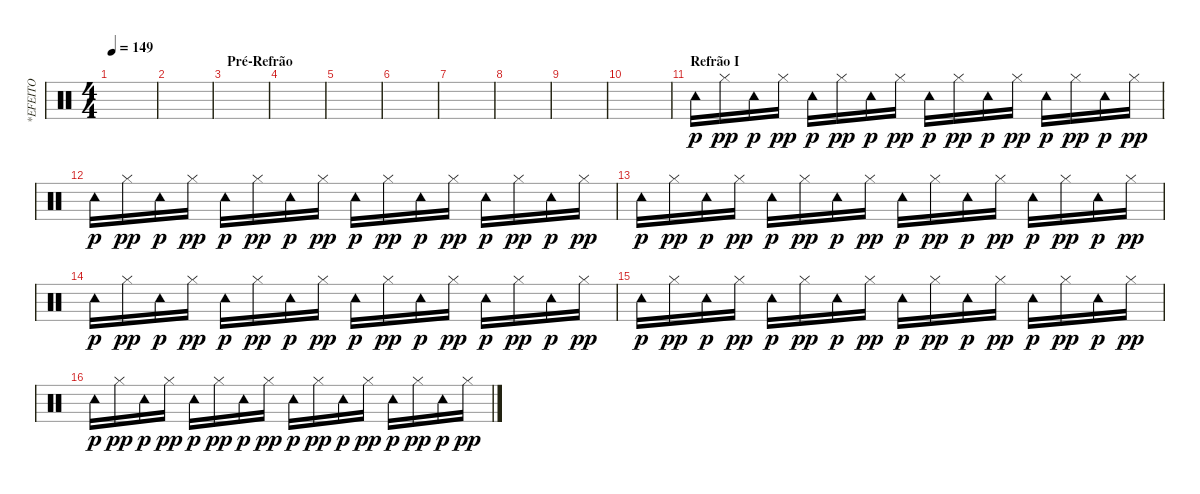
\track ("*EFEITO" "*EFEITO") {instrument percussion}
\staff {score}
\articulation defaults
\ts (4 4)
\tempo 149
\clef neutral
\ks c
|
|
\section ("" "Pré-Refrão")
|
|
|
|
|
|
|
|
\section ("" "Refrão I")
"Tambourine (hit)".16{dy p} "Hi-Hat (closed)".16{dy pp} "Tambourine (hit)".16{dy p} "Hi-Hat (closed)".16{dy pp} "Tambourine (hit)".16{dy p} "Hi-Hat (closed)".16{dy pp} "Tambourine (hit)".16{dy p} "Hi-Hat (closed)".16{dy pp} "Tambourine (hit)".16{dy p} "Hi-Hat (closed)".16{dy pp} "Tambourine (hit)".16{dy p} "Hi-Hat (closed)".16{dy pp} "Tambourine (hit)".16{dy p} "Hi-Hat (closed)".16{dy pp} "Tambourine (hit)".16{dy p} "Hi-Hat (closed)".16{dy pp} |
"Tambourine (hit)".16{dy p} "Hi-Hat (closed)".16{dy pp} "Tambourine (hit)".16{dy p} "Hi-Hat (closed)".16{dy pp} "Tambourine (hit)".16{dy p} "Hi-Hat (closed)".16{dy pp} "Tambourine (hit)".16{dy p} "Hi-Hat (closed)".16{dy pp} "Tambourine (hit)".16{dy p} "Hi-Hat (closed)".16{dy pp} "Tambourine (hit)".16{dy p} "Hi-Hat (closed)".16{dy pp} "Tambourine (hit)".16{dy p} "Hi-Hat (closed)".16{dy pp} "Tambourine (hit)".16{dy p} "Hi-Hat (closed)".16{dy pp} |
"Tambourine (hit)".16{dy p} "Hi-Hat (closed)".16{dy pp} "Tambourine (hit)".16{dy p} "Hi-Hat (closed)".16{dy pp} "Tambourine (hit)".16{dy p} "Hi-Hat (closed)".16{dy pp} "Tambourine (hit)".16{dy p} "Hi-Hat (closed)".16{dy pp} "Tambourine (hit)".16{dy p} "Hi-Hat (closed)".16{dy pp} "Tambourine (hit)".16{dy p} "Hi-Hat (closed)".16{dy pp} "Tambourine (hit)".16{dy p} "Hi-Hat (closed)".16{dy pp} "Tambourine (hit)".16{dy p} "Hi-Hat (closed)".16{dy pp} |
"Tambourine (hit)".16{dy p} "Hi-Hat (closed)".16{dy pp} "Tambourine (hit)".16{dy p} "Hi-Hat (closed)".16{dy pp} "Tambourine (hit)".16{dy p} "Hi-Hat (closed)".16{dy pp} "Tambourine (hit)".16{dy p} "Hi-Hat (closed)".16{dy pp} "Tambourine (hit)".16{dy p} "Hi-Hat (closed)".16{dy pp} "Tambourine (hit)".16{dy p} "Hi-Hat (closed)".16{dy pp} "Tambourine (hit)".16{dy p} "Hi-Hat (closed)".16{dy pp} "Tambourine (hit)".16{dy p} "Hi-Hat (closed)".16{dy pp} |
"Tambourine (hit)".16{dy p} "Hi-Hat (closed)".16{dy pp} "Tambourine (hit)".16{dy p} "Hi-Hat (closed)".16{dy pp} "Tambourine (hit)".16{dy p} "Hi-Hat (closed)".16{dy pp} "Tambourine (hit)".16{dy p} "Hi-Hat (closed)".16{dy pp} "Tambourine (hit)".16{dy p} "Hi-Hat (closed)".16{dy pp} "Tambourine (hit)".16{dy p} "Hi-Hat (closed)".16{dy pp} "Tambourine (hit)".16{dy p} "Hi-Hat (closed)".16{dy pp} "Tambourine (hit)".16{dy p} "Hi-Hat (closed)".16{dy pp} |
"Tambourine (hit)".16{dy p} "Hi-Hat (closed)".16{dy pp} "Tambourine (hit)".16{dy p} "Hi-Hat (closed)".16{dy pp} "Tambourine (hit)".16{dy p} "Hi-Hat (closed)".16{dy pp} "Tambourine (hit)".16{dy p} "Hi-Hat (closed)".16{dy pp} "Tambourine (hit)".16{dy p} "Hi-Hat (closed)".16{dy pp} "Tambourine (hit)".16{dy p} "Hi-Hat (closed)".16{dy pp} "Tambourine (hit)".16{dy p} "Hi-Hat (closed)".16{dy pp} "Tambourine (hit)".16{dy p} "Hi-Hat (closed)".16{dy pp}
